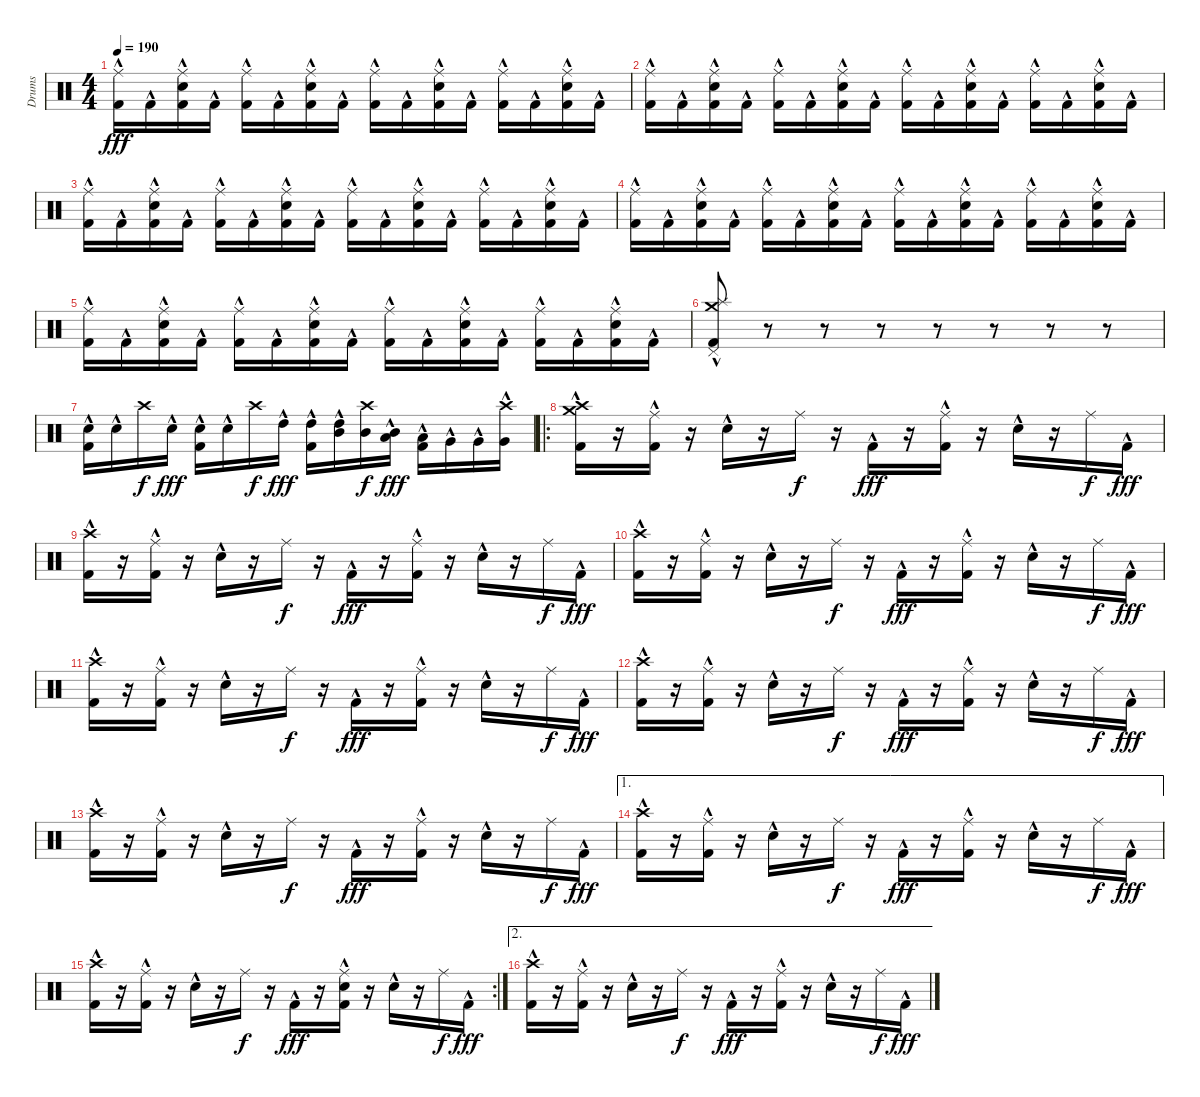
\track ("Drums" "Drums") {instrument percussion}
\staff {score}
\articulation defaults
\ts (4 4)
\tempo 190
\clef neutral
\ks c
("Ride (middle)" "Kick (hit) 2"{hac}).16{dy fff} "Kick (hit) 2"{hac}.16 ("Ride (middle)" "Snare (hit) 2"{hac} "Kick (hit) 2"{hac}).16 "Kick (hit) 2"{hac}.16 ("Ride (middle)" "Kick (hit) 2"{hac}).16 "Kick (hit) 2"{hac}.16 ("Ride (middle)" "Snare (hit) 2"{hac} "Kick (hit) 2"{hac}).16 "Kick (hit) 2"{hac}.16 ("Ride (middle)" "Kick (hit) 2"{hac}).16 "Kick (hit) 2"{hac}.16 ("Ride (middle)" "Snare (hit) 2"{hac} "Kick (hit) 2"{hac}).16 "Kick (hit) 2"{hac}.16 ("Ride (middle)" "Kick (hit) 2"{hac}).16 "Kick (hit) 2"{hac}.16 ("Ride (middle)" "Snare (hit) 2"{hac} "Kick (hit) 2"{hac}).16 "Kick (hit) 2"{hac}.16 |
("Ride (middle)" "Kick (hit) 2"{hac}).16 "Kick (hit) 2"{hac}.16 ("Ride (middle)" "Snare (hit) 2"{hac} "Kick (hit) 2"{hac}).16 "Kick (hit) 2"{hac}.16 ("Ride (middle)" "Kick (hit) 2"{hac}).16 "Kick (hit) 2"{hac}.16 ("Ride (middle)" "Snare (hit) 2"{hac} "Kick (hit) 2").16 "Kick (hit) 2"{hac}.16 ("Ride (middle)" "Kick (hit) 2"{hac}).16 "Kick (hit) 2"{hac}.16 ("Ride (middle)" "Snare (hit) 2"{hac} "Kick (hit) 2"{hac}).16 "Kick (hit) 2"{hac}.16 ("Ride (middle)" "Kick (hit) 2"{hac}).16 "Kick (hit) 2"{hac}.16 ("Ride (middle)" "Snare (hit) 2"{hac} "Kick (hit) 2"{hac}).16 "Kick (hit) 2"{hac}.16 |
("Ride (middle)" "Kick (hit) 2"{hac}).16 "Kick (hit) 2"{hac}.16 ("Ride (middle)" "Snare (hit) 2"{hac} "Kick (hit) 2"{hac}).16 "Kick (hit) 2"{hac}.16 ("Ride (middle)" "Kick (hit) 2"{hac}).16 "Kick (hit) 2"{hac}.16 ("Ride (middle)" "Snare (hit) 2"{hac} "Kick (hit) 2"{hac}).16 "Kick (hit) 2"{hac}.16 ("Ride (middle)" "Kick (hit) 2"{hac}).16 "Kick (hit) 2"{hac}.16 ("Ride (middle)" "Snare (hit) 2"{hac} "Kick (hit) 2"{hac}).16 "Kick (hit) 2"{hac}.16 ("Ride (middle)" "Kick (hit) 2"{hac}).16 "Kick (hit) 2"{hac}.16 ("Ride (middle)" "Snare (hit) 2"{hac} "Kick (hit) 2"{hac}).16 "Kick (hit) 2"{hac}.16 |
("Ride (middle)" "Kick (hit) 2"{hac}).16 "Kick (hit) 2"{hac}.16 ("Ride (middle)" "Snare (hit) 2"{hac} "Kick (hit) 2"{hac}).16 "Kick (hit) 2"{hac}.16 ("Ride (middle)" "Kick (hit) 2"{hac}).16 "Kick (hit) 2"{hac}.16 ("Ride (middle)" "Snare (hit) 2"{hac} "Kick (hit) 2"{hac}).16 "Kick (hit) 2"{hac}.16 ("Ride (middle)" "Kick (hit) 2"{hac}).16 "Kick (hit) 2"{hac}.16 ("Ride (middle)" "Snare (hit) 2"{hac} "Kick (hit) 2"{hac}).16 "Kick (hit) 2"{hac}.16 ("Ride (middle)" "Kick (hit) 2"{hac}).16 "Kick (hit) 2"{hac}.16 ("Ride (middle)" "Snare (hit) 2"{hac} "Kick (hit) 2"{hac}).16 "Kick (hit) 2"{hac}.16 |
("Ride (middle)" "Kick (hit) 2"{hac}).16 "Kick (hit) 2"{hac}.16 ("Ride (middle)" "Snare (hit) 2"{hac} "Kick (hit) 2"{hac}).16 "Kick (hit) 2"{hac}.16 ("Ride (middle)" "Kick (hit) 2"{hac}).16 "Kick (hit) 2"{hac}.16 ("Ride (middle)" "Snare (hit) 2"{hac} "Kick (hit) 2"{hac}).16 "Kick (hit) 2"{hac}.16 ("Ride (middle)" "Kick (hit) 2"{hac}).16 "Kick (hit) 2"{hac}.16 ("Ride (middle)" "Snare (hit) 2"{hac} "Kick (hit) 2"{hac}).16 "Kick (hit) 2"{hac}.16 ("Ride (middle)" "Kick (hit) 2"{hac}).16 "Kick (hit) 2"{hac}.16 ("Ride (middle)" "Snare (hit) 2"{hac} "Kick (hit) 2"{hac}).16 "Kick (hit) 2"{hac}.16 |
("Splash (hit)" "Crash medium (hit)" "Pedal Hi-Hat (hit)"{hac} "Kick (hit) 2"{hac}).8 r.8 r.8 r.8 r.8 r.8 r.8 r.8 |
("Snare (hit) 2"{hac} "Kick (hit) 2"{hac}).16 "Snare (hit) 2"{hac}.16 "Crash high (hit)".16{dy f} "Snare (hit) 2"{hac}.16{dy fff} ("Snare (hit) 2"{hac} "Kick (hit) 2"{hac}).16 "Snare (hit) 2"{hac}.16 "Crash high (hit)".16{dy f} "High Tom (hit)"{hac}.16{dy fff} ("High Tom (hit)"{hac} "Kick (hit) 2"{hac}).16 ("Mid Tom (hit)"{hac} "High Tom (hit)").16 ("Crash high (hit)" "Mid Tom (hit)").16{dy f} ("Low Tom (hit)"{hac} "Mid Tom (hit)").16{dy fff} ("Low Tom (hit)"{hac} "Kick (hit) 2"{hac}).16 "Very Low Tom (hit)"{hac}.16 "Very Low Tom (hit)"{hac}.16 ("Crash high (hit)" "Very Low Tom (hit)"{hac}).16 |
\ro
("Crash high (hit)" "Crash medium (hit)" "Kick (hit) 2"{hac}).16 r.16 ("Ride (middle)" "Kick (hit) 2"{hac}).16 r.16 "Snare (hit) 2"{hac}.16 r.16 "Ride (middle)".16{dy f} r.16 "Kick (hit) 2"{hac}.16{dy fff} r.16 ("Ride (middle)" "Kick (hit) 2"{hac}).16 r.16 "Snare (hit) 2"{hac}.16 r.16 "Ride (middle)".16{dy f} "Kick (hit) 2"{hac}.16{dy fff} |
("Crash high (hit)" "Kick (hit) 2"{hac}).16 r.16 ("Ride (middle)" "Kick (hit) 2"{hac}).16 r.16 "Snare (hit) 2"{hac}.16 r.16 "Ride (middle)".16{dy f} r.16 "Kick (hit) 2"{hac}.16{dy fff} r.16 ("Ride (middle)" "Kick (hit) 2"{hac}).16 r.16 "Snare (hit) 2"{hac}.16 r.16 "Ride (middle)".16{dy f} "Kick (hit) 2"{hac}.16{dy fff} |
("Crash high (hit)" "Kick (hit) 2"{hac}).16 r.16 ("Ride (middle)" "Kick (hit) 2"{hac}).16 r.16 "Snare (hit) 2"{hac}.16 r.16 "Ride (middle)".16{dy f} r.16 "Kick (hit) 2"{hac}.16{dy fff} r.16 ("Ride (middle)" "Kick (hit) 2"{hac}).16 r.16 "Snare (hit) 2"{hac}.16 r.16 "Ride (middle)".16{dy f} "Kick (hit) 2"{hac}.16{dy fff} |
("Crash high (hit)" "Kick (hit) 2"{hac}).16 r.16 ("Ride (middle)" "Kick (hit) 2"{hac}).16 r.16 "Snare (hit) 2"{hac}.16 r.16 "Ride (middle)".16{dy f} r.16 "Kick (hit) 2"{hac}.16{dy fff} r.16 ("Ride (middle)" "Kick (hit) 2"{hac}).16 r.16 "Snare (hit) 2"{hac}.16 r.16 "Ride (middle)".16{dy f} "Kick (hit) 2"{hac}.16{dy fff} |
("Crash high (hit)" "Kick (hit) 2"{hac}).16 r.16 ("Ride (middle)" "Kick (hit) 2"{hac}).16 r.16 "Snare (hit) 2"{hac}.16 r.16 "Ride (middle)".16{dy f} r.16 "Kick (hit) 2"{hac}.16{dy fff} r.16 ("Ride (middle)" "Kick (hit) 2"{hac}).16 r.16 "Snare (hit) 2"{hac}.16 r.16 "Ride (middle)".16{dy f} "Kick (hit) 2"{hac}.16{dy fff} |
("Crash high (hit)" "Kick (hit) 2"{hac}).16 r.16 ("Ride (middle)" "Kick (hit) 2"{hac}).16 r.16 "Snare (hit) 2"{hac}.16 r.16 "Ride (middle)".16{dy f} r.16 "Kick (hit) 2"{hac}.16{dy fff} r.16 ("Ride (middle)" "Kick (hit) 2"{hac}).16 r.16 "Snare (hit) 2"{hac}.16 r.16 "Ride (middle)".16{dy f} "Kick (hit) 2"{hac}.16{dy fff} |
\ae 1
("Crash high (hit)" "Kick (hit) 2"{hac}).16 r.16 ("Ride (middle)" "Kick (hit) 2"{hac}).16 r.16 "Snare (hit) 2"{hac}.16 r.16 "Ride (middle)".16{dy f} r.16 "Kick (hit) 2"{hac}.16{dy fff} r.16 ("Ride (middle)" "Kick (hit) 2"{hac}).16 r.16 "Snare (hit) 2"{hac}.16 r.16 "Ride (middle)".16{dy f} "Kick (hit) 2"{hac}.16{dy fff} |
\rc 2
("Crash high (hit)" "Kick (hit) 2"{hac}).16 r.16 ("Ride (middle)" "Kick (hit) 2"{hac}).16 r.16 "Snare (hit) 2"{hac}.16 r.16 "Ride (middle)".16{dy f} r.16 "Kick (hit) 2"{hac}.16{dy fff} r.16 ("Ride (middle)" "Snare (hit) 2"{hac} "Kick (hit) 2"{hac}).16 r.16 "Snare (hit) 2"{hac}.16 r.16 "Ride (middle)".16{dy f} "Kick (hit) 2"{hac}.16{dy fff} |
\ae 2
("Crash high (hit)" "Kick (hit) 2"{hac}).16 r.16 ("Ride (middle)" "Kick (hit) 2"{hac}).16 r.16 "Snare (hit) 2"{hac}.16 r.16 "Ride (middle)".16{dy f} r.16 "Kick (hit) 2"{hac}.16{dy fff} r.16 ("Ride (middle)" "Kick (hit) 2"{hac}).16 r.16 "Snare (hit) 2"{hac}.16 r.16 "Ride (middle)".16{dy f} "Kick (hit) 2"{hac}.16{dy fff}
